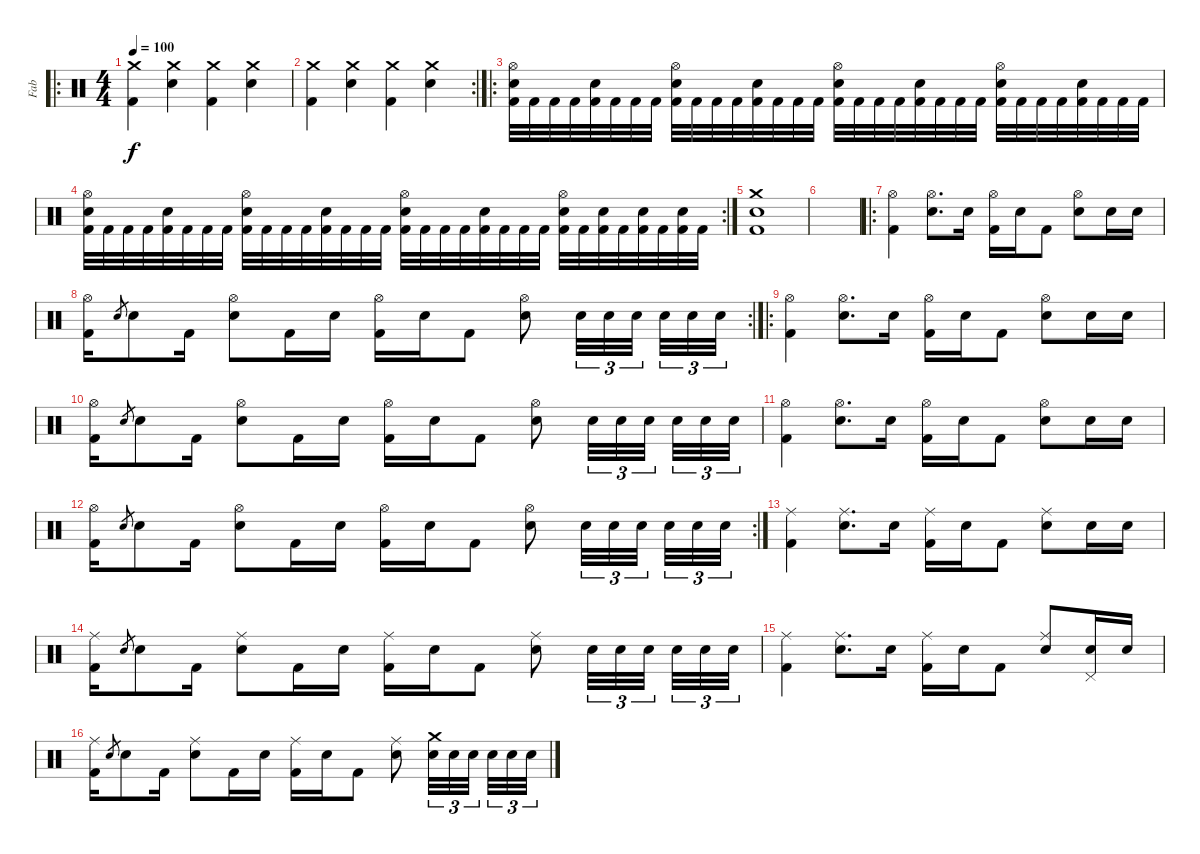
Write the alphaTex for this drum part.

\track ("Fab" "Fab") {instrument percussion}
\staff {score}
\articulation defaults
\ro
\ts (4 4)
\tempo 100
\clef neutral
\ks c
("Crash medium (hit)" "Kick (hit) 2").4{dy f} ("Crash medium (hit)" "Snare (hit) 2").4 ("Crash medium (hit)" "Kick (hit) 2").4 ("Crash medium (hit)" "Snare (hit) 2").4 |
\rc 2
("Crash medium (hit)" "Kick (hit) 2").4 ("Crash medium (hit)" "Snare (hit) 2").4 ("Crash medium (hit)" "Kick (hit) 2").4 ("Crash medium (hit)" "Snare (hit) 2").4 |
\ro
("Hi-Hat (open)" "Snare (hit) 2" "Kick (hit) 2").32 "Kick (hit) 2".32 "Kick (hit) 2".32 "Kick (hit) 2".32 ("Snare (hit) 2" "Kick (hit) 2").32 "Kick (hit) 2".32 "Kick (hit) 2".32 "Kick (hit) 2".32 ("Hi-Hat (open)" "Snare (hit) 2" "Kick (hit) 2").32 "Kick (hit) 2".32 "Kick (hit) 2".32 "Kick (hit) 2".32 ("Snare (hit) 2" "Kick (hit) 2").32 "Kick (hit) 2".32 "Kick (hit) 2".32 "Kick (hit) 2".32 ("Hi-Hat (open)" "Snare (hit) 2" "Kick (hit) 2").32 "Kick (hit) 2".32 "Kick (hit) 2".32 "Kick (hit) 2".32 ("Snare (hit) 2" "Kick (hit) 2").32 "Kick (hit) 2".32 "Kick (hit) 2".32 "Kick (hit) 2".32 ("Hi-Hat (open)" "Snare (hit) 2" "Kick (hit) 2").32 "Kick (hit) 2".32 "Kick (hit) 2".32 "Kick (hit) 2".32 ("Snare (hit) 2" "Kick (hit) 2").32 "Kick (hit) 2".32 "Kick (hit) 2".32 "Kick (hit) 2".32 |
\rc 2
("Hi-Hat (open)" "Snare (hit) 2" "Kick (hit) 2").32 "Kick (hit) 2".32 "Kick (hit) 2".32 "Kick (hit) 2".32 ("Snare (hit) 2" "Kick (hit) 2").32 "Kick (hit) 2".32 "Kick (hit) 2".32 "Kick (hit) 2".32 ("Hi-Hat (open)" "Snare (hit) 2" "Kick (hit) 2").32 "Kick (hit) 2".32 "Kick (hit) 2".32 "Kick (hit) 2".32 ("Snare (hit) 2" "Kick (hit) 2").32 "Kick (hit) 2".32 "Kick (hit) 2".32 "Kick (hit) 2".32 ("Hi-Hat (open)" "Snare (hit) 2" "Kick (hit) 2").32 "Kick (hit) 2".32 "Kick (hit) 2".32 "Kick (hit) 2".32 ("Snare (hit) 2" "Kick (hit) 2").32 "Kick (hit) 2".32 "Kick (hit) 2".32 "Kick (hit) 2".32 ("Hi-Hat (open)" "Snare (hit) 2" "Kick (hit) 2").32 "Kick (hit) 2".32 ("Snare (hit) 2" "Kick (hit) 2").32 "Kick (hit) 2".32 ("Snare (hit) 2" "Kick (hit) 2").32 "Kick (hit) 2".32 ("Snare (hit) 2" "Kick (hit) 2").32 "Kick (hit) 2".32 |
("Crash medium (hit)" "Snare (hit) 2" "Kick (hit) 2").1 |
|
\ro
("Hi-Hat (open)" "Kick (hit) 2").4 ("Hi-Hat (open)" "Snare (hit) 2").8{d} "Snare (hit) 2".16 ("Hi-Hat (open)" "Kick (hit) 2").16 "Snare (hit) 2".16 "Kick (hit) 2".8 ("Hi-Hat (open)" "Snare (hit) 2").8 "Snare (hit) 2".16 "Snare (hit) 2".16 |
\rc 2
("Hi-Hat (open)" "Kick (hit) 2").16 "Snare (hit) 2".8{gr} "Snare (hit) 2".8 "Kick (hit) 2".16 ("Hi-Hat (open)" "Snare (hit) 2").8 "Kick (hit) 2".16 "Snare (hit) 2".16 ("Hi-Hat (open)" "Kick (hit) 2").16 "Snare (hit) 2".16 "Kick (hit) 2".8 ("Hi-Hat (open)" "Snare (hit) 2").8 "Snare (hit) 2".32{tu (3 2)} "Snare (hit) 2".32{tu (3 2)} "Snare (hit) 2".32{tu (3 2)} "Snare (hit) 2".32{tu (3 2)} "Snare (hit) 2".32{tu (3 2)} "Snare (hit) 2".32{tu (3 2)} |
\ro
("Hi-Hat (open)" "Kick (hit) 2").4 ("Hi-Hat (open)" "Snare (hit) 2").8{d} "Snare (hit) 2".16 ("Hi-Hat (open)" "Kick (hit) 2").16 "Snare (hit) 2".16 "Kick (hit) 2".8 ("Hi-Hat (open)" "Snare (hit) 2").8 "Snare (hit) 2".16 "Snare (hit) 2".16 |
("Hi-Hat (open)" "Kick (hit) 2").16 "Snare (hit) 2".8{gr} "Snare (hit) 2".8 "Kick (hit) 2".16 ("Hi-Hat (open)" "Snare (hit) 2").8 "Kick (hit) 2".16 "Snare (hit) 2".16 ("Hi-Hat (open)" "Kick (hit) 2").16 "Snare (hit) 2".16 "Kick (hit) 2".8 ("Hi-Hat (open)" "Snare (hit) 2").8 "Snare (hit) 2".32{tu (3 2)} "Snare (hit) 2".32{tu (3 2)} "Snare (hit) 2".32{tu (3 2)} "Snare (hit) 2".32{tu (3 2)} "Snare (hit) 2".32{tu (3 2)} "Snare (hit) 2".32{tu (3 2)} |
("Hi-Hat (open)" "Kick (hit) 2").4 ("Hi-Hat (open)" "Snare (hit) 2").8{d} "Snare (hit) 2".16 ("Hi-Hat (open)" "Kick (hit) 2").16 "Snare (hit) 2".16 "Kick (hit) 2".8 ("Hi-Hat (open)" "Snare (hit) 2").8 "Snare (hit) 2".16 "Snare (hit) 2".16 |
\rc 2
("Hi-Hat (open)" "Kick (hit) 2").16 "Snare (hit) 2".8{gr} "Snare (hit) 2".8 "Kick (hit) 2".16 ("Hi-Hat (open)" "Snare (hit) 2").8 "Kick (hit) 2".16 "Snare (hit) 2".16 ("Hi-Hat (open)" "Kick (hit) 2").16 "Snare (hit) 2".16 "Kick (hit) 2".8 ("Hi-Hat (open)" "Snare (hit) 2").8 "Snare (hit) 2".32{tu (3 2)} "Snare (hit) 2".32{tu (3 2)} "Snare (hit) 2".32{tu (3 2)} "Snare (hit) 2".32{tu (3 2)} "Snare (hit) 2".32{tu (3 2)} "Snare (hit) 2".32{tu (3 2)} |
("Ride (middle)" "Kick (hit) 2").4 ("Ride (middle)" "Snare (hit) 2").8{d} "Snare (hit) 2".16 ("Ride (middle)" "Kick (hit) 2").16 "Snare (hit) 2".16 "Kick (hit) 2".8 ("Ride (middle)" "Snare (hit) 2").8 "Snare (hit) 2".16 "Snare (hit) 2".16 |
("Ride (middle)" "Kick (hit) 2").16 "Snare (hit) 2".8{gr} "Snare (hit) 2".8 "Kick (hit) 2".16 ("Ride (middle)" "Snare (hit) 2").8 "Kick (hit) 2".16 "Snare (hit) 2".16 ("Ride (middle)" "Kick (hit) 2").16 "Snare (hit) 2".16 "Kick (hit) 2".8 ("Ride (middle)" "Snare (hit) 2").8 "Snare (hit) 2".32{tu (3 2)} "Snare (hit) 2".32{tu (3 2)} "Snare (hit) 2".32{tu (3 2)} "Snare (hit) 2".32{tu (3 2)} "Snare (hit) 2".32{tu (3 2)} "Snare (hit) 2".32{tu (3 2)} |
("Ride (middle)" "Kick (hit) 2").4 ("Ride (middle)" "Snare (hit) 2").8{d} "Snare (hit) 2".16 ("Ride (middle)" "Kick (hit) 2").16 "Snare (hit) 2".16 "Kick (hit) 2".8 ("Ride (middle)" "Snare (hit) 2").8 ("Pedal Hi-Hat (hit)" "Snare (hit) 2").16 "Snare (hit) 2".16 |
("Ride (middle)" "Kick (hit) 2").16 "Snare (hit) 2".8{gr} "Snare (hit) 2".8 "Kick (hit) 2".16 ("Ride (middle)" "Snare (hit) 2").8 "Kick (hit) 2".16 "Snare (hit) 2".16 ("Ride (middle)" "Kick (hit) 2").16 "Snare (hit) 2".16 "Kick (hit) 2".8 ("Ride (middle)" "Snare (hit) 2").8 ("Crash medium (hit)" "Snare (hit) 2").32{tu (3 2)} "Snare (hit) 2".32{tu (3 2)} "Snare (hit) 2".32{tu (3 2)} "Snare (hit) 2".32{tu (3 2)} "Snare (hit) 2".32{tu (3 2)} "Snare (hit) 2".32{tu (3 2)}
